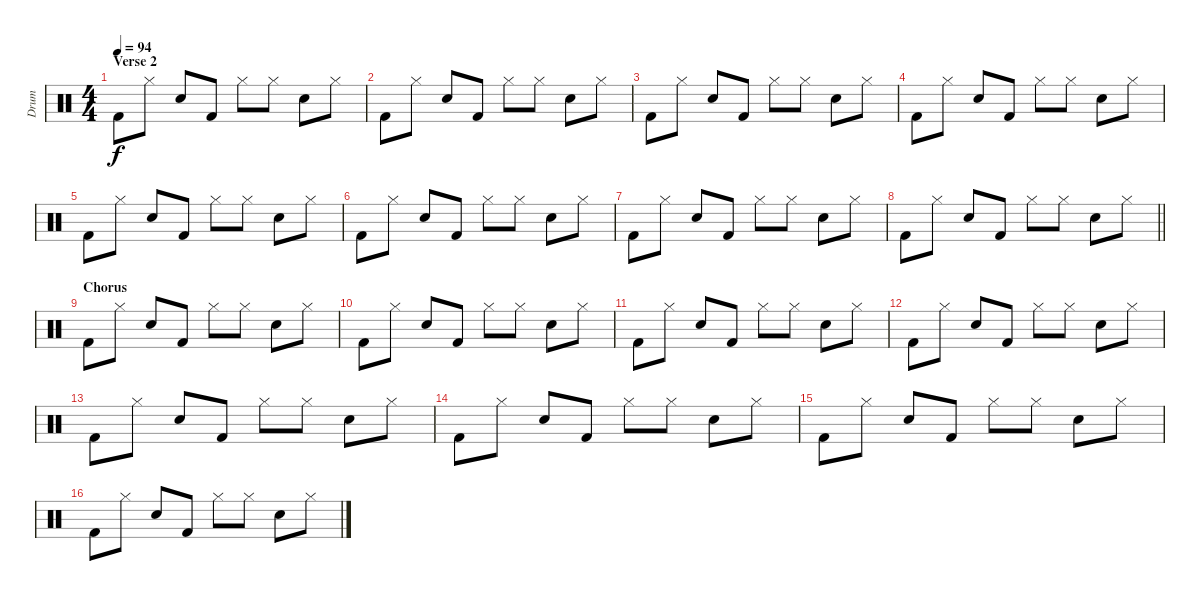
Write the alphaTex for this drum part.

\track ("Drum" "Drum") {instrument percussion}
\staff {score}
\articulation defaults
\ts (4 4)
\section ("" "Verse 2")
\tempo 94
\clef neutral
\ks c "Kick (hit) 2".8{dy f} "Hi-Hat (closed)".8 "Electric Snare (hit)".8 "Kick (hit) 2".8 "Hi-Hat (closed)".8 "Hi-Hat (closed)".8 "Electric Snare (hit)".8 "Hi-Hat (closed)".8
|
"Kick (hit) 2".8 "Hi-Hat (closed)".8 "Electric Snare (hit)".8 "Kick (hit) 2".8 "Hi-Hat (closed)".8 "Hi-Hat (closed)".8 "Electric Snare (hit)".8 "Hi-Hat (closed)".8 |
"Kick (hit) 2".8 "Hi-Hat (closed)".8 "Electric Snare (hit)".8 "Kick (hit) 2".8 "Hi-Hat (closed)".8 "Hi-Hat (closed)".8 "Electric Snare (hit)".8 "Hi-Hat (closed)".8 |
"Kick (hit) 2".8 "Hi-Hat (closed)".8 "Electric Snare (hit)".8 "Kick (hit) 2".8 "Hi-Hat (closed)".8 "Hi-Hat (closed)".8 "Electric Snare (hit)".8 "Hi-Hat (closed)".8 |
"Kick (hit) 2".8 "Hi-Hat (closed)".8 "Electric Snare (hit)".8 "Kick (hit) 2".8 "Hi-Hat (closed)".8 "Hi-Hat (closed)".8 "Electric Snare (hit)".8 "Hi-Hat (closed)".8 |
"Kick (hit) 2".8 "Hi-Hat (closed)".8 "Electric Snare (hit)".8 "Kick (hit) 2".8 "Hi-Hat (closed)".8 "Hi-Hat (closed)".8 "Electric Snare (hit)".8 "Hi-Hat (closed)".8 |
"Kick (hit) 2".8 "Hi-Hat (closed)".8 "Electric Snare (hit)".8 "Kick (hit) 2".8 "Hi-Hat (closed)".8 "Hi-Hat (closed)".8 "Electric Snare (hit)".8 "Hi-Hat (closed)".8 |
\barLineRight lightlight "Kick (hit) 2".8 "Hi-Hat (closed)".8 "Electric Snare (hit)".8 "Kick (hit) 2".8 "Hi-Hat (closed)".8 "Hi-Hat (closed)".8 "Electric Snare (hit)".8 "Hi-Hat (closed)".8
|
\section ("" "Chorus")
"Kick (hit) 2".8 "Hi-Hat (closed)".8 "Electric Snare (hit)".8 "Kick (hit) 2".8 "Hi-Hat (closed)".8 "Hi-Hat (closed)".8 "Electric Snare (hit)".8 "Hi-Hat (closed)".8 |
"Kick (hit) 2".8 "Hi-Hat (closed)".8 "Electric Snare (hit)".8 "Kick (hit) 2".8 "Hi-Hat (closed)".8 "Hi-Hat (closed)".8 "Electric Snare (hit)".8 "Hi-Hat (closed)".8 |
"Kick (hit) 2".8 "Hi-Hat (closed)".8 "Electric Snare (hit)".8 "Kick (hit) 2".8 "Hi-Hat (closed)".8 "Hi-Hat (closed)".8 "Electric Snare (hit)".8 "Hi-Hat (closed)".8 |
"Kick (hit) 2".8 "Hi-Hat (closed)".8 "Electric Snare (hit)".8 "Kick (hit) 2".8 "Hi-Hat (closed)".8 "Hi-Hat (closed)".8 "Electric Snare (hit)".8 "Hi-Hat (closed)".8 |
"Kick (hit) 2".8 "Hi-Hat (closed)".8 "Electric Snare (hit)".8 "Kick (hit) 2".8 "Hi-Hat (closed)".8 "Hi-Hat (closed)".8 "Electric Snare (hit)".8 "Hi-Hat (closed)".8 |
"Kick (hit) 2".8 "Hi-Hat (closed)".8 "Electric Snare (hit)".8 "Kick (hit) 2".8 "Hi-Hat (closed)".8 "Hi-Hat (closed)".8 "Electric Snare (hit)".8 "Hi-Hat (closed)".8 |
"Kick (hit) 2".8 "Hi-Hat (closed)".8 "Electric Snare (hit)".8 "Kick (hit) 2".8 "Hi-Hat (closed)".8 "Hi-Hat (closed)".8 "Electric Snare (hit)".8 "Hi-Hat (closed)".8 |
"Kick (hit) 2".8 "Hi-Hat (closed)".8 "Electric Snare (hit)".8 "Kick (hit) 2".8 "Hi-Hat (closed)".8 "Hi-Hat (closed)".8 "Electric Snare (hit)".8 "Hi-Hat (closed)".8
